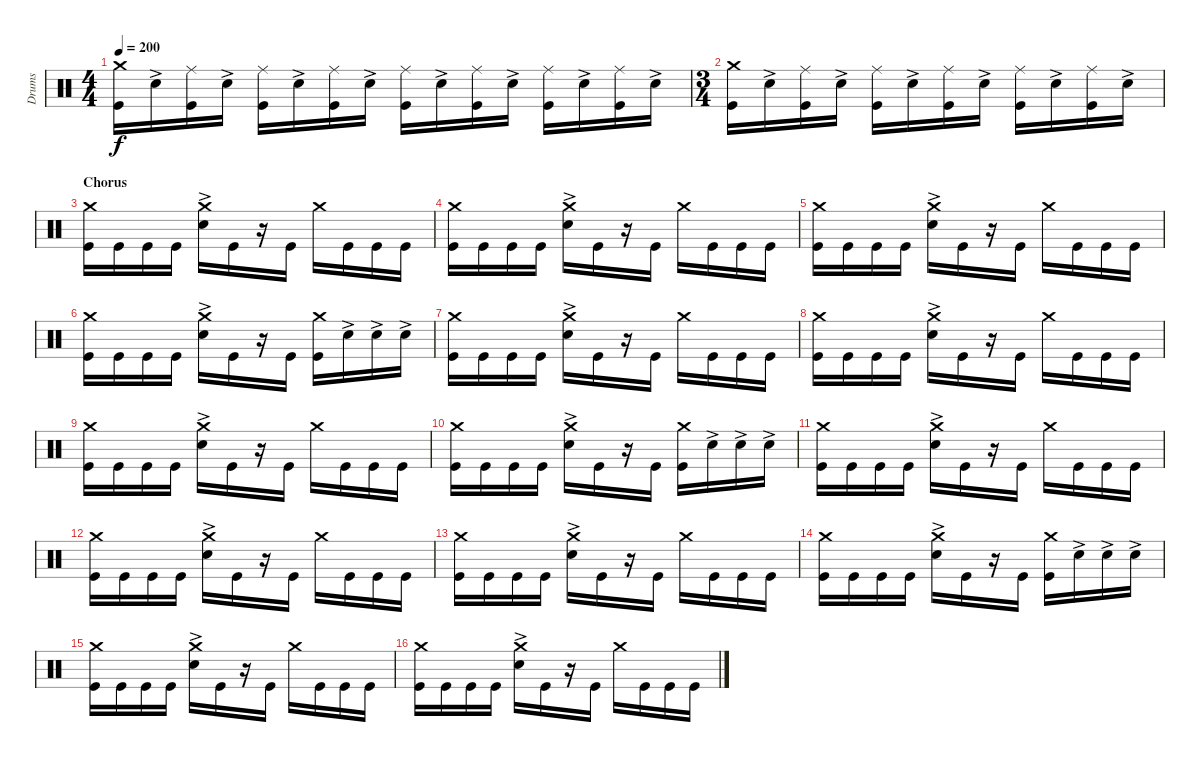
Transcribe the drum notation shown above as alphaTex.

\track ("Drums" "Drums") {instrument percussion}
\staff {score}
\articulation defaults
\ts (4 4)
\tempo 200
\clef neutral
\ks c
("Kick (hit)" "Crash medium (hit)").16{dy f} "Snare (hit) 2"{ac}.16 ("Kick (hit)" "Ride (middle)").16 "Snare (hit) 2"{ac}.16 ("Kick (hit)" "Ride (middle)").16 "Snare (hit) 2"{ac}.16 ("Kick (hit)" "Ride (middle)").16 "Snare (hit) 2"{ac}.16 ("Kick (hit)" "Ride (middle)").16 "Snare (hit) 2"{ac}.16 ("Kick (hit)" "Ride (middle)").16 "Snare (hit) 2"{ac}.16 ("Kick (hit)" "Ride (middle)").16 "Snare (hit) 2"{ac}.16 ("Kick (hit)" "Ride (middle)").16 "Snare (hit) 2"{ac}.16 |
\ts (3 4)
("Kick (hit)" "Crash medium (hit)").16 "Snare (hit) 2"{ac}.16 ("Kick (hit)" "Ride (middle)").16 "Snare (hit) 2"{ac}.16 ("Kick (hit)" "Ride (middle)").16 "Snare (hit) 2"{ac}.16 ("Kick (hit)" "Ride (middle)").16 "Snare (hit) 2"{ac}.16 ("Kick (hit)" "Ride (middle)").16 "Snare (hit) 2"{ac}.16 ("Kick (hit)" "Ride (middle)").16 "Snare (hit) 2"{ac}.16 |
\section ("" "Chorus")
("Crash medium (hit)" "Kick (hit)").16 "Kick (hit)".16 "Kick (hit)".16 "Kick (hit)".16 ("Crash medium (hit)" "Snare (hit) 2"{ac}).16 "Kick (hit)".16 r.16 "Kick (hit)".16 "Crash medium (hit)".16 "Kick (hit)".16 "Kick (hit)".16 "Kick (hit)".16 |
("Crash medium (hit)" "Kick (hit)").16 "Kick (hit)".16 "Kick (hit)".16 "Kick (hit)".16 ("Crash medium (hit)" "Snare (hit) 2"{ac}).16 "Kick (hit)".16 r.16 "Kick (hit)".16 "Crash medium (hit)".16 "Kick (hit)".16 "Kick (hit)".16 "Kick (hit)".16 |
("Crash medium (hit)" "Kick (hit)").16 "Kick (hit)".16 "Kick (hit)".16 "Kick (hit)".16 ("Crash medium (hit)" "Snare (hit) 2"{ac}).16 "Kick (hit)".16 r.16 "Kick (hit)".16 "Crash medium (hit)".16 "Kick (hit)".16 "Kick (hit)".16 "Kick (hit)".16 |
("Crash medium (hit)" "Kick (hit)").16 "Kick (hit)".16 "Kick (hit)".16 "Kick (hit)".16 ("Crash medium (hit)" "Snare (hit) 2"{ac}).16 "Kick (hit)".16 r.16 "Kick (hit)".16 ("Kick (hit)" "Crash medium (hit)").16 "Snare (hit) 2"{ac}.16 "Snare (hit) 2"{ac}.16 "Snare (hit) 2"{ac}.16 |
("Crash medium (hit)" "Kick (hit)").16 "Kick (hit)".16 "Kick (hit)".16 "Kick (hit)".16 ("Crash medium (hit)" "Snare (hit) 2"{ac}).16 "Kick (hit)".16 r.16 "Kick (hit)".16 "Crash medium (hit)".16 "Kick (hit)".16 "Kick (hit)".16 "Kick (hit)".16 |
("Crash medium (hit)" "Kick (hit)").16 "Kick (hit)".16 "Kick (hit)".16 "Kick (hit)".16 ("Crash medium (hit)" "Snare (hit) 2"{ac}).16 "Kick (hit)".16 r.16 "Kick (hit)".16 "Crash medium (hit)".16 "Kick (hit)".16 "Kick (hit)".16 "Kick (hit)".16 |
("Crash medium (hit)" "Kick (hit)").16 "Kick (hit)".16 "Kick (hit)".16 "Kick (hit)".16 ("Crash medium (hit)" "Snare (hit) 2"{ac}).16 "Kick (hit)".16 r.16 "Kick (hit)".16 "Crash medium (hit)".16 "Kick (hit)".16 "Kick (hit)".16 "Kick (hit)".16 |
("Crash medium (hit)" "Kick (hit)").16 "Kick (hit)".16 "Kick (hit)".16 "Kick (hit)".16 ("Crash medium (hit)" "Snare (hit) 2"{ac}).16 "Kick (hit)".16 r.16 "Kick (hit)".16 ("Kick (hit)" "Crash medium (hit)").16 "Snare (hit) 2"{ac}.16 "Snare (hit) 2"{ac}.16 "Snare (hit) 2"{ac}.16 |
("Crash medium (hit)" "Kick (hit)").16 "Kick (hit)".16 "Kick (hit)".16 "Kick (hit)".16 ("Crash medium (hit)" "Snare (hit) 2"{ac}).16 "Kick (hit)".16 r.16 "Kick (hit)".16 "Crash medium (hit)".16 "Kick (hit)".16 "Kick (hit)".16 "Kick (hit)".16 |
("Crash medium (hit)" "Kick (hit)").16 "Kick (hit)".16 "Kick (hit)".16 "Kick (hit)".16 ("Crash medium (hit)" "Snare (hit) 2"{ac}).16 "Kick (hit)".16 r.16 "Kick (hit)".16 "Crash medium (hit)".16 "Kick (hit)".16 "Kick (hit)".16 "Kick (hit)".16 |
("Crash medium (hit)" "Kick (hit)").16 "Kick (hit)".16 "Kick (hit)".16 "Kick (hit)".16 ("Crash medium (hit)" "Snare (hit) 2"{ac}).16 "Kick (hit)".16 r.16 "Kick (hit)".16 "Crash medium (hit)".16 "Kick (hit)".16 "Kick (hit)".16 "Kick (hit)".16 |
("Crash medium (hit)" "Kick (hit)").16 "Kick (hit)".16 "Kick (hit)".16 "Kick (hit)".16 ("Crash medium (hit)" "Snare (hit) 2"{ac}).16 "Kick (hit)".16 r.16 "Kick (hit)".16 ("Kick (hit)" "Crash medium (hit)").16 "Snare (hit) 2"{ac}.16 "Snare (hit) 2"{ac}.16 "Snare (hit) 2"{ac}.16 |
("Crash medium (hit)" "Kick (hit)").16 "Kick (hit)".16 "Kick (hit)".16 "Kick (hit)".16 ("Crash medium (hit)" "Snare (hit) 2"{ac}).16 "Kick (hit)".16 r.16 "Kick (hit)".16 "Crash medium (hit)".16 "Kick (hit)".16 "Kick (hit)".16 "Kick (hit)".16 |
("Crash medium (hit)" "Kick (hit)").16 "Kick (hit)".16 "Kick (hit)".16 "Kick (hit)".16 ("Crash medium (hit)" "Snare (hit) 2"{ac}).16 "Kick (hit)".16 r.16 "Kick (hit)".16 "Crash medium (hit)".16 "Kick (hit)".16 "Kick (hit)".16 "Kick (hit)".16
